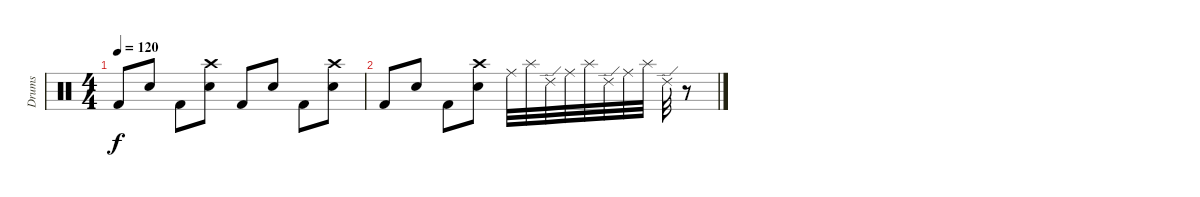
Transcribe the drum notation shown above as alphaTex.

\track ("Drums" "Drums") {instrument percussion}
\staff {score}
\articulation defaults
\ts (4 4)
\tempo 120
\clef neutral
\ks c "Kick (hit) 2".8{dy f} "Snare (hit) 2".8 "Kick (hit) 2".8
("Snare (hit) 2" "Crash high (hit)").8 "Kick (hit) 2".8 "Snare (hit) 2".8 "Kick (hit) 2".8 ("Snare (hit) 2" "Crash high (hit)").8 |
"Kick (hit) 2".8 "Snare (hit) 2".8 "Kick (hit) 2".8 ("Snare (hit) 2" "Crash high (hit)").8 "Ride (middle)".32 "Splash (hit)".32 "Ride (edge) 2".32 "Ride (middle)".32 "Splash (hit)".32 "Ride (edge) 2".32 "Ride (middle)".32 "Splash (hit)".32 "Ride (edge) 2".32 r.8
